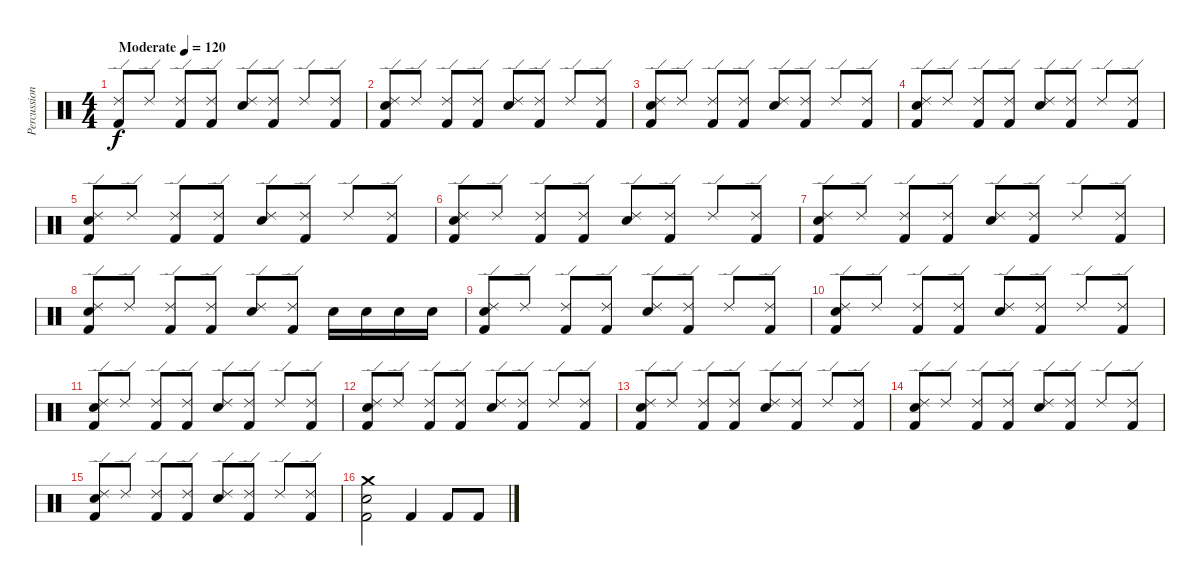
\track ("Percussion" "Percussion") {instrument percussion}
\staff {score}
\articulation defaults
\ts (4 4)
\tempo (120 "Moderate")
\clef neutral
\ks c
("Kick (hit) 2" "Ride (edge) 2").8{dy f} "Ride (edge) 2".8 ("Kick (hit) 2" "Ride (edge) 2").8 ("Kick (hit) 2" "Ride (edge) 2").8 ("Electric Snare (hit)" "Ride (edge) 2").8 ("Kick (hit) 2" "Ride (edge) 2").8 "Ride (edge) 2".8 ("Kick (hit) 2" "Ride (edge) 2").8 |
("Kick (hit) 2" "Electric Snare (hit)" "Ride (edge) 2").8 "Ride (edge) 2".8 ("Kick (hit) 2" "Ride (edge) 2").8 ("Kick (hit) 2" "Ride (edge) 2").8 ("Electric Snare (hit)" "Ride (edge) 2").8 ("Kick (hit) 2" "Ride (edge) 2").8 "Ride (edge) 2".8 ("Kick (hit) 2" "Ride (edge) 2").8 |
("Kick (hit) 2" "Electric Snare (hit)" "Ride (edge) 2").8 "Ride (edge) 2".8 ("Kick (hit) 2" "Ride (edge) 2").8 ("Kick (hit) 2" "Ride (edge) 2").8 ("Electric Snare (hit)" "Ride (edge) 2").8 ("Kick (hit) 2" "Ride (edge) 2").8 "Ride (edge) 2".8 ("Kick (hit) 2" "Ride (edge) 2").8 |
("Kick (hit) 2" "Electric Snare (hit)" "Ride (edge) 2").8 "Ride (edge) 2".8 ("Kick (hit) 2" "Ride (edge) 2").8 ("Kick (hit) 2" "Ride (edge) 2").8 ("Electric Snare (hit)" "Ride (edge) 2").8 ("Kick (hit) 2" "Ride (edge) 2").8 "Ride (edge) 2".8 ("Kick (hit) 2" "Ride (edge) 2").8 |
("Kick (hit) 2" "Electric Snare (hit)" "Ride (edge) 2").8 "Ride (edge) 2".8 ("Kick (hit) 2" "Ride (edge) 2").8 ("Kick (hit) 2" "Ride (edge) 2").8 ("Electric Snare (hit)" "Ride (edge) 2").8 ("Kick (hit) 2" "Ride (edge) 2").8 "Ride (edge) 2".8 ("Kick (hit) 2" "Ride (edge) 2").8 |
("Kick (hit) 2" "Electric Snare (hit)" "Ride (edge) 2").8 "Ride (edge) 2".8 ("Kick (hit) 2" "Ride (edge) 2").8 ("Kick (hit) 2" "Ride (edge) 2").8 ("Electric Snare (hit)" "Ride (edge) 2").8 ("Kick (hit) 2" "Ride (edge) 2").8 "Ride (edge) 2".8 ("Kick (hit) 2" "Ride (edge) 2").8 |
("Kick (hit) 2" "Electric Snare (hit)" "Ride (edge) 2").8 "Ride (edge) 2".8 ("Kick (hit) 2" "Ride (edge) 2").8 ("Kick (hit) 2" "Ride (edge) 2").8 ("Electric Snare (hit)" "Ride (edge) 2").8 ("Kick (hit) 2" "Ride (edge) 2").8 "Ride (edge) 2".8 ("Kick (hit) 2" "Ride (edge) 2").8 |
("Kick (hit) 2" "Electric Snare (hit)" "Ride (edge) 2").8 "Ride (edge) 2".8 ("Kick (hit) 2" "Ride (edge) 2").8 ("Kick (hit) 2" "Ride (edge) 2").8 ("Electric Snare (hit)" "Ride (edge) 2").8 ("Kick (hit) 2" "Ride (edge) 2").8 "Electric Snare (hit)".16 "Electric Snare (hit)".16 "Electric Snare (hit)".16 "Electric Snare (hit)".16 |
("Kick (hit) 2" "Electric Snare (hit)" "Ride (edge) 2").8 "Ride (edge) 2".8 ("Kick (hit) 2" "Ride (edge) 2").8 ("Kick (hit) 2" "Ride (edge) 2").8 ("Electric Snare (hit)" "Ride (edge) 2").8 ("Kick (hit) 2" "Ride (edge) 2").8 "Ride (edge) 2".8 ("Kick (hit) 2" "Ride (edge) 2").8 |
("Kick (hit) 2" "Electric Snare (hit)" "Ride (edge) 2").8 "Ride (edge) 2".8 ("Kick (hit) 2" "Ride (edge) 2").8 ("Kick (hit) 2" "Ride (edge) 2").8 ("Electric Snare (hit)" "Ride (edge) 2").8 ("Kick (hit) 2" "Ride (edge) 2").8 "Ride (edge) 2".8 ("Kick (hit) 2" "Ride (edge) 2").8 |
("Kick (hit) 2" "Electric Snare (hit)" "Ride (edge) 2").8 "Ride (edge) 2".8 ("Kick (hit) 2" "Ride (edge) 2").8 ("Kick (hit) 2" "Ride (edge) 2").8 ("Electric Snare (hit)" "Ride (edge) 2").8 ("Kick (hit) 2" "Ride (edge) 2").8 "Ride (edge) 2".8 ("Kick (hit) 2" "Ride (edge) 2").8 |
("Kick (hit) 2" "Electric Snare (hit)" "Ride (edge) 2").8 "Ride (edge) 2".8 ("Kick (hit) 2" "Ride (edge) 2").8 ("Kick (hit) 2" "Ride (edge) 2").8 ("Electric Snare (hit)" "Ride (edge) 2").8 ("Kick (hit) 2" "Ride (edge) 2").8 "Ride (edge) 2".8 ("Kick (hit) 2" "Ride (edge) 2").8 |
("Kick (hit) 2" "Electric Snare (hit)" "Ride (edge) 2").8 "Ride (edge) 2".8 ("Kick (hit) 2" "Ride (edge) 2").8 ("Kick (hit) 2" "Ride (edge) 2").8 ("Electric Snare (hit)" "Ride (edge) 2").8 ("Kick (hit) 2" "Ride (edge) 2").8 "Ride (edge) 2".8 ("Kick (hit) 2" "Ride (edge) 2").8 |
("Kick (hit) 2" "Electric Snare (hit)" "Ride (edge) 2").8 "Ride (edge) 2".8 ("Kick (hit) 2" "Ride (edge) 2").8 ("Kick (hit) 2" "Ride (edge) 2").8 ("Electric Snare (hit)" "Ride (edge) 2").8 ("Kick (hit) 2" "Ride (edge) 2").8 "Ride (edge) 2".8 ("Kick (hit) 2" "Ride (edge) 2").8 |
("Kick (hit) 2" "Electric Snare (hit)" "Ride (edge) 2").8 "Ride (edge) 2".8 ("Kick (hit) 2" "Ride (edge) 2").8 ("Kick (hit) 2" "Ride (edge) 2").8 ("Electric Snare (hit)" "Ride (edge) 2").8 ("Kick (hit) 2" "Ride (edge) 2").8 "Ride (edge) 2".8 ("Kick (hit) 2" "Ride (edge) 2").8 |
("Kick (hit) 2" "Electric Snare (hit)" "Crash medium (hit)").2 "Kick (hit) 2".4 "Kick (hit) 2".8 "Kick (hit) 2".8
